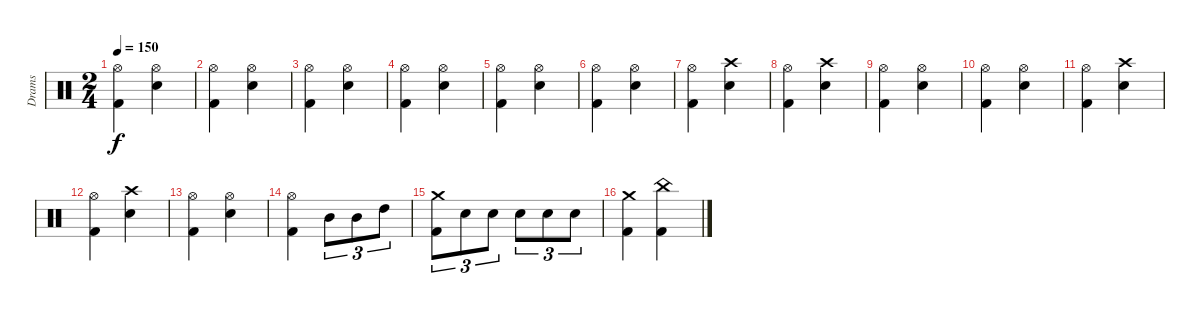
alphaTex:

\track ("Drams" "Drams") {instrument percussion}
\staff {score}
\articulation defaults
\ts (2 4)
\tempo 150
\clef neutral
\ks aminor
("Hi-Hat (open)" "Kick (hit) 2").4{dy f} ("Hi-Hat (open)" "Electric Snare (hit)").4 |
("Hi-Hat (open)" "Kick (hit) 2").4 ("Hi-Hat (open)" "Electric Snare (hit)").4 |
("Hi-Hat (open)" "Kick (hit) 2").4 ("Hi-Hat (open)" "Electric Snare (hit)").4 |
("Hi-Hat (open)" "Kick (hit) 2").4 ("Hi-Hat (open)" "Electric Snare (hit)").4 |
("Hi-Hat (open)" "Kick (hit) 2").4 ("Hi-Hat (open)" "Electric Snare (hit)").4 |
("Hi-Hat (open)" "Kick (hit) 2").4 ("Hi-Hat (open)" "Electric Snare (hit)").4 |
("Hi-Hat (open)" "Kick (hit) 2").4 ("Crash high (hit)" "Electric Snare (hit)").4 |
("Hi-Hat (open)" "Kick (hit) 2").4 ("Crash high (hit)" "Electric Snare (hit)").4 |
("Hi-Hat (open)" "Kick (hit) 2").4 ("Hi-Hat (open)" "Electric Snare (hit)").4 |
("Hi-Hat (open)" "Kick (hit) 2").4 ("Hi-Hat (open)" "Electric Snare (hit)").4 |
("Hi-Hat (open)" "Kick (hit) 2").4 ("Crash high (hit)" "Electric Snare (hit)").4 |
("Hi-Hat (open)" "Kick (hit) 2").4 ("Crash high (hit)" "Electric Snare (hit)").4 |
("Hi-Hat (open)" "Kick (hit) 2").4 ("Hi-Hat (open)" "Electric Snare (hit)").4 |
("Hi-Hat (open)" "Kick (hit) 2").4 "Mid Tom (hit)".8{tu (3 2)} "Mid Tom (hit)".8{tu (3 2)} "High Tom (hit)".8{tu (3 2)} |
("Crash medium (hit)" "Kick (hit) 2").8{tu (3 2)} "Electric Snare (hit)".8{tu (3 2)} "Electric Snare (hit)".8{tu (3 2)} "Electric Snare (hit)".8{tu (3 2)} "Electric Snare (hit)".8{tu (3 2)} "Electric Snare (hit)".8{tu (3 2)} |
("Crash medium (hit)" "Kick (hit) 2").4 ("Kick (hit) 2" "China (hit)").4
